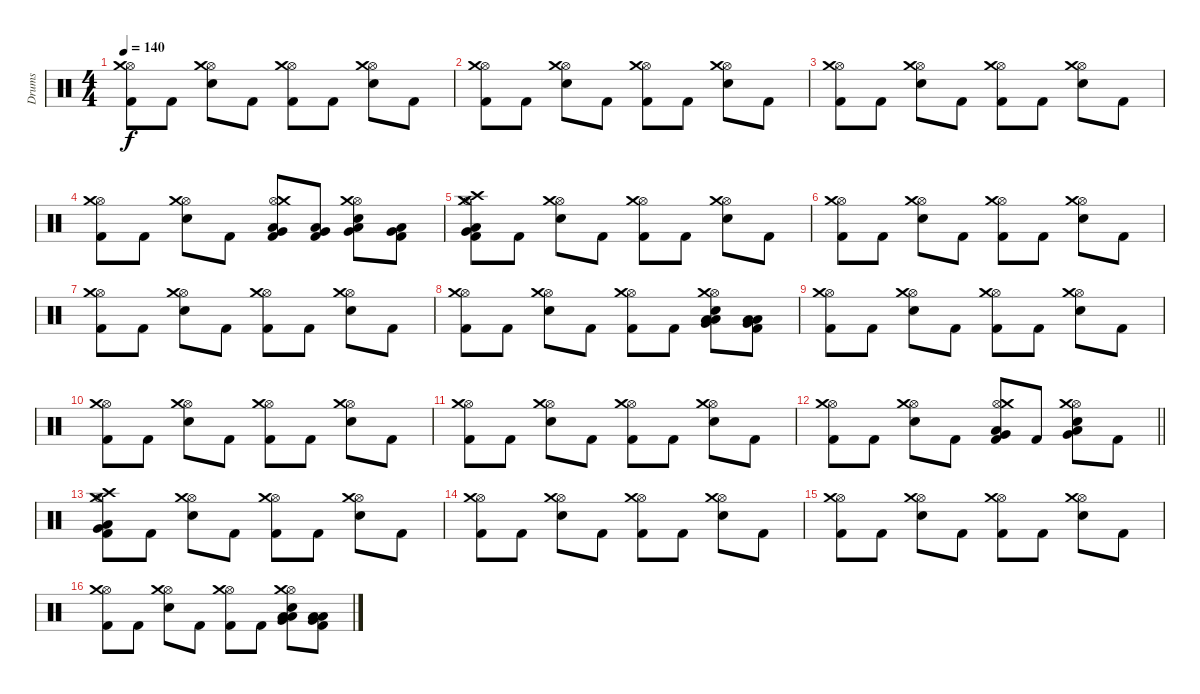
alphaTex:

\track ("Drums" "Drums") {instrument percussion}
\staff {score}
\articulation defaults
\ts (4 4)
\tempo 140
\clef neutral
\ks c
("Kick (hit) 2" "Hi-Hat (open)" "Crash medium (hit)").8{dy f} "Kick (hit) 2".8 ("Electric Snare (hit)" "Hi-Hat (open)" "Crash medium (hit)").8 "Kick (hit) 2".8 ("Kick (hit) 2" "Hi-Hat (open)" "Crash medium (hit)").8 "Kick (hit) 2".8 ("Electric Snare (hit)" "Hi-Hat (open)" "Crash medium (hit)").8 "Kick (hit) 2".8 |
("Kick (hit) 2" "Hi-Hat (open)" "Crash medium (hit)").8 "Kick (hit) 2".8 ("Electric Snare (hit)" "Hi-Hat (open)" "Crash medium (hit)").8 "Kick (hit) 2".8 ("Kick (hit) 2" "Hi-Hat (open)" "Crash medium (hit)").8 "Kick (hit) 2".8 ("Electric Snare (hit)" "Hi-Hat (open)" "Crash medium (hit)").8 "Kick (hit) 2".8 |
("Kick (hit) 2" "Hi-Hat (open)" "Crash medium (hit)").8 "Kick (hit) 2".8 ("Electric Snare (hit)" "Hi-Hat (open)" "Crash medium (hit)").8 "Kick (hit) 2".8 ("Kick (hit) 2" "Hi-Hat (open)" "Crash medium (hit)").8 "Kick (hit) 2".8 ("Electric Snare (hit)" "Hi-Hat (open)" "Crash medium (hit)").8 "Kick (hit) 2".8 |
("Kick (hit) 2" "Hi-Hat (open)" "Crash medium (hit)").8 "Kick (hit) 2".8 ("Electric Snare (hit)" "Hi-Hat (open)" "Crash medium (hit)").8 "Kick (hit) 2".8 ("Kick (hit) 2" "Hi-Hat (open)" "Crash medium (hit)" "Very Low Tom (hit)" "Low Tom (hit)").8 ("Kick (hit) 2" "Very Low Tom (hit)" "Low Tom (hit)").8 ("Electric Snare (hit)" "Hi-Hat (open)" "Crash medium (hit)" "Very Low Tom (hit)" "Low Tom (hit)").8 ("Kick (hit) 2" "Very Low Tom (hit)" "Low Tom (hit)").8 |
("Kick (hit) 2" "Hi-Hat (open)" "Crash medium (hit)" "Very Low Tom (hit)" "Low Tom (hit)" "Crash high (hit)").8 "Kick (hit) 2".8 ("Electric Snare (hit)" "Hi-Hat (open)" "Crash medium (hit)").8 "Kick (hit) 2".8 ("Kick (hit) 2" "Hi-Hat (open)" "Crash medium (hit)").8 "Kick (hit) 2".8 ("Electric Snare (hit)" "Hi-Hat (open)" "Crash medium (hit)").8 "Kick (hit) 2".8 |
("Kick (hit) 2" "Hi-Hat (open)" "Crash medium (hit)").8 "Kick (hit) 2".8 ("Electric Snare (hit)" "Hi-Hat (open)" "Crash medium (hit)").8 "Kick (hit) 2".8 ("Kick (hit) 2" "Hi-Hat (open)" "Crash medium (hit)").8 "Kick (hit) 2".8 ("Electric Snare (hit)" "Hi-Hat (open)" "Crash medium (hit)").8 "Kick (hit) 2".8 |
("Kick (hit) 2" "Hi-Hat (open)" "Crash medium (hit)").8 "Kick (hit) 2".8 ("Electric Snare (hit)" "Hi-Hat (open)" "Crash medium (hit)").8 "Kick (hit) 2".8 ("Kick (hit) 2" "Hi-Hat (open)" "Crash medium (hit)").8 "Kick (hit) 2".8 ("Electric Snare (hit)" "Hi-Hat (open)" "Crash medium (hit)").8 "Kick (hit) 2".8 |
("Kick (hit) 2" "Hi-Hat (open)" "Crash medium (hit)").8 "Kick (hit) 2".8 ("Electric Snare (hit)" "Hi-Hat (open)" "Crash medium (hit)").8 "Kick (hit) 2".8 ("Kick (hit) 2" "Hi-Hat (open)" "Crash medium (hit)").8 "Kick (hit) 2".8 ("Electric Snare (hit)" "Hi-Hat (open)" "Crash medium (hit)" "Low Floor Tom (hit)" "Very Low Tom (hit)" "Low Tom (hit)").8 ("Kick (hit) 2" "Low Floor Tom (hit)" "Very Low Tom (hit)" "Low Tom (hit)").8 |
("Kick (hit) 2" "Hi-Hat (open)" "Crash medium (hit)").8 "Kick (hit) 2".8 ("Electric Snare (hit)" "Hi-Hat (open)" "Crash medium (hit)").8 "Kick (hit) 2".8 ("Kick (hit) 2" "Hi-Hat (open)" "Crash medium (hit)").8 "Kick (hit) 2".8 ("Electric Snare (hit)" "Hi-Hat (open)" "Crash medium (hit)").8 "Kick (hit) 2".8 |
("Kick (hit) 2" "Hi-Hat (open)" "Crash medium (hit)").8 "Kick (hit) 2".8 ("Electric Snare (hit)" "Hi-Hat (open)" "Crash medium (hit)").8 "Kick (hit) 2".8 ("Kick (hit) 2" "Hi-Hat (open)" "Crash medium (hit)").8 "Kick (hit) 2".8 ("Electric Snare (hit)" "Hi-Hat (open)" "Crash medium (hit)").8 "Kick (hit) 2".8 |
("Kick (hit) 2" "Hi-Hat (open)" "Crash medium (hit)").8 "Kick (hit) 2".8 ("Electric Snare (hit)" "Hi-Hat (open)" "Crash medium (hit)").8 "Kick (hit) 2".8 ("Kick (hit) 2" "Hi-Hat (open)" "Crash medium (hit)").8 "Kick (hit) 2".8 ("Electric Snare (hit)" "Hi-Hat (open)" "Crash medium (hit)").8 "Kick (hit) 2".8 |
\barLineRight lightlight
("Kick (hit) 2" "Hi-Hat (open)" "Crash medium (hit)").8 "Kick (hit) 2".8 ("Electric Snare (hit)" "Hi-Hat (open)" "Crash medium (hit)").8 "Kick (hit) 2".8 ("Kick (hit) 2" "Hi-Hat (open)" "Crash medium (hit)" "Very Low Tom (hit)" "Low Tom (hit)").8 "Kick (hit) 2".8 ("Electric Snare (hit)" "Hi-Hat (open)" "Crash medium (hit)" "Very Low Tom (hit)" "Low Tom (hit)").8 "Kick (hit) 2".8 |
("Kick (hit) 2" "Hi-Hat (open)" "Crash medium (hit)" "Very Low Tom (hit)" "Low Tom (hit)" "Crash high (hit)").8 "Kick (hit) 2".8 ("Electric Snare (hit)" "Hi-Hat (open)" "Crash medium (hit)").8 "Kick (hit) 2".8 ("Kick (hit) 2" "Hi-Hat (open)" "Crash medium (hit)").8 "Kick (hit) 2".8 ("Electric Snare (hit)" "Hi-Hat (open)" "Crash medium (hit)").8 "Kick (hit) 2".8 |
("Kick (hit) 2" "Hi-Hat (open)" "Crash medium (hit)").8 "Kick (hit) 2".8 ("Electric Snare (hit)" "Hi-Hat (open)" "Crash medium (hit)").8 "Kick (hit) 2".8 ("Kick (hit) 2" "Hi-Hat (open)" "Crash medium (hit)").8 "Kick (hit) 2".8 ("Electric Snare (hit)" "Hi-Hat (open)" "Crash medium (hit)").8 "Kick (hit) 2".8 |
("Kick (hit) 2" "Hi-Hat (open)" "Crash medium (hit)").8 "Kick (hit) 2".8 ("Electric Snare (hit)" "Hi-Hat (open)" "Crash medium (hit)").8 "Kick (hit) 2".8 ("Kick (hit) 2" "Hi-Hat (open)" "Crash medium (hit)").8 "Kick (hit) 2".8 ("Electric Snare (hit)" "Hi-Hat (open)" "Crash medium (hit)").8 "Kick (hit) 2".8 |
("Kick (hit) 2" "Hi-Hat (open)" "Crash medium (hit)").8 "Kick (hit) 2".8 ("Electric Snare (hit)" "Hi-Hat (open)" "Crash medium (hit)").8 "Kick (hit) 2".8 ("Kick (hit) 2" "Hi-Hat (open)" "Crash medium (hit)").8 "Kick (hit) 2".8 ("Electric Snare (hit)" "Hi-Hat (open)" "Crash medium (hit)" "Low Floor Tom (hit)" "Very Low Tom (hit)" "Low Tom (hit)").8 ("Kick (hit) 2" "Low Floor Tom (hit)" "Very Low Tom (hit)" "Low Tom (hit)").8
